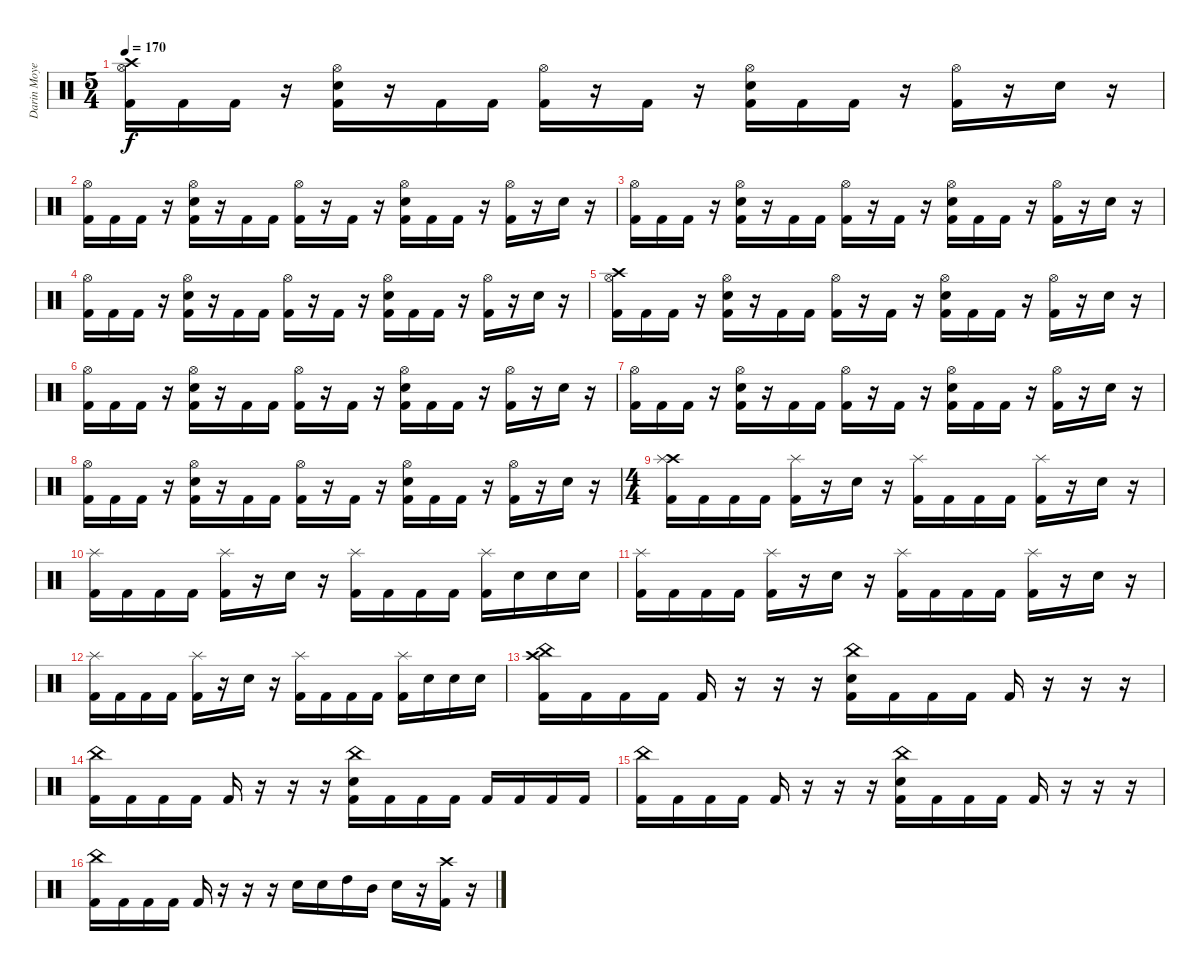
\track ("Darin Moyen" "Darin Moye") {instrument percussion}
\staff {score}
\articulation defaults
\ts (5 4)
\tempo 170
\clef neutral
\ks c
("Crash high (hit)" "Hi-Hat (open)" "Kick (hit) 2").16{dy f} "Kick (hit) 2".16 "Kick (hit) 2".16 r.16 ("Hi-Hat (open)" "Electric Snare (hit)" "Kick (hit) 2").16 r.16 "Kick (hit) 2".16 "Kick (hit) 2".16 ("Hi-Hat (open)" "Kick (hit) 2").16 r.16 "Kick (hit) 2".16 r.16 ("Hi-Hat (open)" "Electric Snare (hit)" "Kick (hit) 2").16 "Kick (hit) 2".16 "Kick (hit) 2".16 r.16 ("Hi-Hat (open)" "Kick (hit) 2").16 r.16 "Electric Snare (hit)".16 r.16 |
("Hi-Hat (open)" "Kick (hit) 2").16 "Kick (hit) 2".16 "Kick (hit) 2".16 r.16 ("Hi-Hat (open)" "Electric Snare (hit)" "Kick (hit) 2").16 r.16 "Kick (hit) 2".16 "Kick (hit) 2".16 ("Hi-Hat (open)" "Kick (hit) 2").16 r.16 "Kick (hit) 2".16 r.16 ("Hi-Hat (open)" "Electric Snare (hit)" "Kick (hit) 2").16 "Kick (hit) 2".16 "Kick (hit) 2".16 r.16 ("Hi-Hat (open)" "Kick (hit) 2").16 r.16 "Electric Snare (hit)".16 r.16 |
("Hi-Hat (open)" "Kick (hit) 2").16 "Kick (hit) 2".16 "Kick (hit) 2".16 r.16 ("Hi-Hat (open)" "Electric Snare (hit)" "Kick (hit) 2").16 r.16 "Kick (hit) 2".16 "Kick (hit) 2".16 ("Hi-Hat (open)" "Kick (hit) 2").16 r.16 "Kick (hit) 2".16 r.16 ("Hi-Hat (open)" "Electric Snare (hit)" "Kick (hit) 2").16 "Kick (hit) 2".16 "Kick (hit) 2".16 r.16 ("Hi-Hat (open)" "Kick (hit) 2").16 r.16 "Electric Snare (hit)".16 r.16 |
("Hi-Hat (open)" "Kick (hit) 2").16 "Kick (hit) 2".16 "Kick (hit) 2".16 r.16 ("Hi-Hat (open)" "Electric Snare (hit)" "Kick (hit) 2").16 r.16 "Kick (hit) 2".16 "Kick (hit) 2".16 ("Hi-Hat (open)" "Kick (hit) 2").16 r.16 "Kick (hit) 2".16 r.16 ("Hi-Hat (open)" "Electric Snare (hit)" "Kick (hit) 2").16 "Kick (hit) 2".16 "Kick (hit) 2".16 r.16 ("Hi-Hat (open)" "Kick (hit) 2").16 r.16 "Electric Snare (hit)".16 r.16 |
("Crash high (hit)" "Hi-Hat (open)" "Kick (hit) 2").16 "Kick (hit) 2".16 "Kick (hit) 2".16 r.16 ("Hi-Hat (open)" "Electric Snare (hit)" "Kick (hit) 2").16 r.16 "Kick (hit) 2".16 "Kick (hit) 2".16 ("Hi-Hat (open)" "Kick (hit) 2").16 r.16 "Kick (hit) 2".16 r.16 ("Hi-Hat (open)" "Electric Snare (hit)" "Kick (hit) 2").16 "Kick (hit) 2".16 "Kick (hit) 2".16 r.16 ("Hi-Hat (open)" "Kick (hit) 2").16 r.16 "Electric Snare (hit)".16 r.16 |
("Hi-Hat (open)" "Kick (hit) 2").16 "Kick (hit) 2".16 "Kick (hit) 2".16 r.16 ("Hi-Hat (open)" "Electric Snare (hit)" "Kick (hit) 2").16 r.16 "Kick (hit) 2".16 "Kick (hit) 2".16 ("Hi-Hat (open)" "Kick (hit) 2").16 r.16 "Kick (hit) 2".16 r.16 ("Hi-Hat (open)" "Electric Snare (hit)" "Kick (hit) 2").16 "Kick (hit) 2".16 "Kick (hit) 2".16 r.16 ("Hi-Hat (open)" "Kick (hit) 2").16 r.16 "Electric Snare (hit)".16 r.16 |
("Hi-Hat (open)" "Kick (hit) 2").16 "Kick (hit) 2".16 "Kick (hit) 2".16 r.16 ("Hi-Hat (open)" "Electric Snare (hit)" "Kick (hit) 2").16 r.16 "Kick (hit) 2".16 "Kick (hit) 2".16 ("Hi-Hat (open)" "Kick (hit) 2").16 r.16 "Kick (hit) 2".16 r.16 ("Hi-Hat (open)" "Electric Snare (hit)" "Kick (hit) 2").16 "Kick (hit) 2".16 "Kick (hit) 2".16 r.16 ("Hi-Hat (open)" "Kick (hit) 2").16 r.16 "Electric Snare (hit)".16 r.16 |
("Hi-Hat (open)" "Kick (hit) 2").16 "Kick (hit) 2".16 "Kick (hit) 2".16 r.16 ("Hi-Hat (open)" "Electric Snare (hit)" "Kick (hit) 2").16 r.16 "Kick (hit) 2".16 "Kick (hit) 2".16 ("Hi-Hat (open)" "Kick (hit) 2").16 r.16 "Kick (hit) 2".16 r.16 ("Hi-Hat (open)" "Electric Snare (hit)" "Kick (hit) 2").16 "Kick (hit) 2".16 "Kick (hit) 2".16 r.16 ("Hi-Hat (open)" "Kick (hit) 2").16 r.16 "Electric Snare (hit)".16 r.16 |
\ts (4 4)
("Crash high (hit)" "Splash (hit)" "Kick (hit) 2").16 "Kick (hit) 2".16 "Kick (hit) 2".16 "Kick (hit) 2".16 ("Splash (hit)" "Kick (hit) 2").16 r.16 "Electric Snare (hit)".16 r.16 ("Splash (hit)" "Kick (hit) 2").16 "Kick (hit) 2".16 "Kick (hit) 2".16 "Kick (hit) 2".16 ("Splash (hit)" "Kick (hit) 2").16 r.16 "Electric Snare (hit)".16 r.16 |
("Splash (hit)" "Kick (hit) 2").16 "Kick (hit) 2".16 "Kick (hit) 2".16 "Kick (hit) 2".16 ("Splash (hit)" "Kick (hit) 2").16 r.16 "Electric Snare (hit)".16 r.16 ("Splash (hit)" "Kick (hit) 2").16 "Kick (hit) 2".16 "Kick (hit) 2".16 "Kick (hit) 2".16 ("Splash (hit)" "Kick (hit) 2").16 "Electric Snare (hit)".16 "Electric Snare (hit)".16 "Electric Snare (hit)".16 |
("Splash (hit)" "Kick (hit) 2").16 "Kick (hit) 2".16 "Kick (hit) 2".16 "Kick (hit) 2".16 ("Splash (hit)" "Kick (hit) 2").16 r.16 "Electric Snare (hit)".16 r.16 ("Splash (hit)" "Kick (hit) 2").16 "Kick (hit) 2".16 "Kick (hit) 2".16 "Kick (hit) 2".16 ("Splash (hit)" "Kick (hit) 2").16 r.16 "Electric Snare (hit)".16 r.16 |
("Splash (hit)" "Kick (hit) 2").16 "Kick (hit) 2".16 "Kick (hit) 2".16 "Kick (hit) 2".16 ("Splash (hit)" "Kick (hit) 2").16 r.16 "Electric Snare (hit)".16 r.16 ("Splash (hit)" "Kick (hit) 2").16 "Kick (hit) 2".16 "Kick (hit) 2".16 "Kick (hit) 2".16 ("Splash (hit)" "Kick (hit) 2").16 "Electric Snare (hit)".16 "Electric Snare (hit)".16 "Electric Snare (hit)".16 |
("Crash high (hit)" "China (hit)" "Kick (hit) 2").16 "Kick (hit) 2".16 "Kick (hit) 2".16 "Kick (hit) 2".16 "Kick (hit) 2".16 r.16 r.16 r.16 ("China (hit)" "Electric Snare (hit)" "Kick (hit) 2").16 "Kick (hit) 2".16 "Kick (hit) 2".16 "Kick (hit) 2".16 "Kick (hit) 2".16 r.16 r.16 r.16 |
("China (hit)" "Kick (hit) 2").16 "Kick (hit) 2".16 "Kick (hit) 2".16 "Kick (hit) 2".16 "Kick (hit) 2".16 r.16 r.16 r.16 ("China (hit)" "Electric Snare (hit)" "Kick (hit) 2").16 "Kick (hit) 2".16 "Kick (hit) 2".16 "Kick (hit) 2".16 "Kick (hit) 2".16 "Kick (hit) 2".16 "Kick (hit) 2".16 "Kick (hit) 2".16 |
("China (hit)" "Kick (hit) 2").16 "Kick (hit) 2".16 "Kick (hit) 2".16 "Kick (hit) 2".16 "Kick (hit) 2".16 r.16 r.16 r.16 ("China (hit)" "Electric Snare (hit)" "Kick (hit) 2").16 "Kick (hit) 2".16 "Kick (hit) 2".16 "Kick (hit) 2".16 "Kick (hit) 2".16 r.16 r.16 r.16 |
("China (hit)" "Kick (hit) 2").16 "Kick (hit) 2".16 "Kick (hit) 2".16 "Kick (hit) 2".16 "Kick (hit) 2".16 r.16 r.16 r.16 "Electric Snare (hit)".16 "Electric Snare (hit)".16 "High Tom (hit)".16 "Mid Tom (hit)".16 "Electric Snare (hit)".16 r.16 ("Crash high (hit)" "Kick (hit) 2").16 r.16
